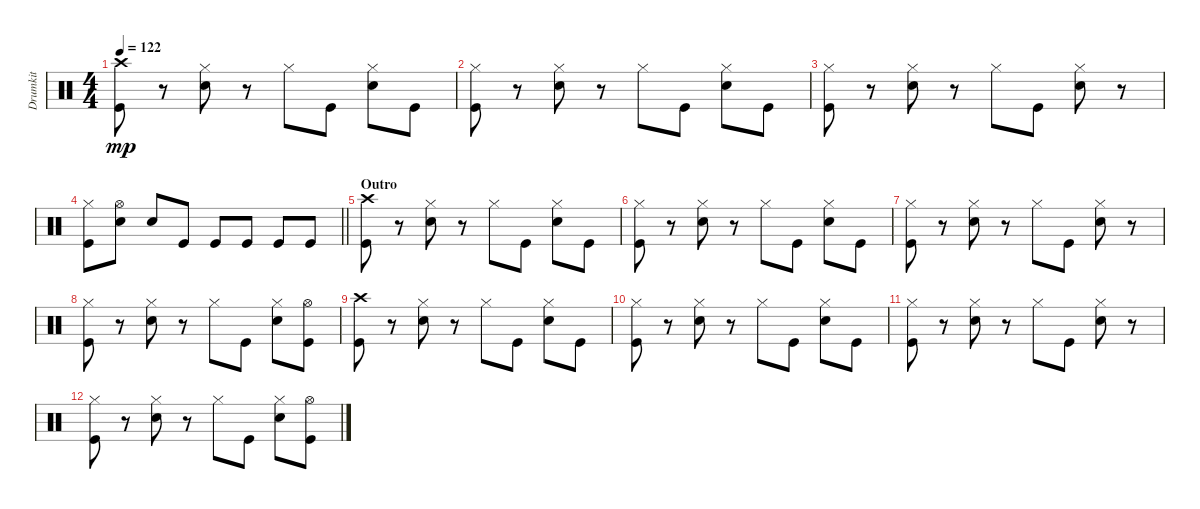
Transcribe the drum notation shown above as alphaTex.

\track ("Drumkit" "Drumkit") {instrument percussion}
\staff {score}
\articulation defaults
\ts (4 4)
\tempo 122
\clef neutral
\ks c
("Kick (hit)" "Crash high (hit)").8{dy mp} r.8 ("Snare (hit) 2" "Hi-Hat (closed)").8 r.8 "Hi-Hat (closed)".8 "Kick (hit)".8 ("Snare (hit) 2" "Hi-Hat (closed)").8 "Kick (hit)".8 |
("Kick (hit)" "Hi-Hat (closed)").8 r.8 ("Snare (hit) 2" "Hi-Hat (closed)").8 r.8 "Hi-Hat (closed)".8 "Kick (hit)".8 ("Snare (hit) 2" "Hi-Hat (closed)").8 "Kick (hit)".8 |
("Kick (hit)" "Hi-Hat (closed)").8 r.8 ("Snare (hit) 2" "Hi-Hat (closed)").8 r.8 "Hi-Hat (closed)".8 "Kick (hit)".8 ("Snare (hit) 2" "Hi-Hat (closed)").8 r.8 |
\barLineRight lightlight
("Hi-Hat (closed)" "Kick (hit)").8 ("Snare (hit) 2" "Hi-Hat (open)").8 "Snare (hit) 2".8 "Kick (hit)".8 "Kick (hit)".8 "Kick (hit)".8 "Kick (hit)".8 "Kick (hit)".8 |
\section ("" "Outro")
("Kick (hit)" "Crash high (hit)").8 r.8 ("Snare (hit) 2" "Hi-Hat (closed)").8 r.8 "Hi-Hat (closed)".8 "Kick (hit)".8 ("Snare (hit) 2" "Hi-Hat (closed)").8 "Kick (hit)".8 |
("Kick (hit)" "Hi-Hat (closed)").8 r.8 ("Snare (hit) 2" "Hi-Hat (closed)").8 r.8 "Hi-Hat (closed)".8 "Kick (hit)".8 ("Snare (hit) 2" "Hi-Hat (closed)").8 "Kick (hit)".8 |
("Kick (hit)" "Hi-Hat (closed)").8 r.8 ("Snare (hit) 2" "Hi-Hat (closed)").8 r.8 "Hi-Hat (closed)".8 "Kick (hit)".8 ("Snare (hit) 2" "Hi-Hat (closed)").8 r.8 |
("Kick (hit)" "Hi-Hat (closed)").8 r.8 ("Snare (hit) 2" "Hi-Hat (closed)").8 r.8 "Hi-Hat (closed)".8 "Kick (hit)".8 ("Snare (hit) 2" "Hi-Hat (closed)").8 ("Kick (hit)" "Hi-Hat (open)").8 |
("Kick (hit)" "Crash high (hit)").8 r.8 ("Snare (hit) 2" "Hi-Hat (closed)").8 r.8 "Hi-Hat (closed)".8 "Kick (hit)".8 ("Snare (hit) 2" "Hi-Hat (closed)").8 "Kick (hit)".8 |
("Kick (hit)" "Hi-Hat (closed)").8 r.8 ("Snare (hit) 2" "Hi-Hat (closed)").8 r.8 "Hi-Hat (closed)".8 "Kick (hit)".8 ("Snare (hit) 2" "Hi-Hat (closed)").8 "Kick (hit)".8 |
("Kick (hit)" "Hi-Hat (closed)").8 r.8 ("Snare (hit) 2" "Hi-Hat (closed)").8 r.8 "Hi-Hat (closed)".8 "Kick (hit)".8 ("Snare (hit) 2" "Hi-Hat (closed)").8 r.8 |
("Kick (hit)" "Hi-Hat (closed)").8 r.8 ("Snare (hit) 2" "Hi-Hat (closed)").8 r.8 "Hi-Hat (closed)".8 "Kick (hit)".8 ("Snare (hit) 2" "Hi-Hat (closed)").8 ("Kick (hit)" "Hi-Hat (open)").8
